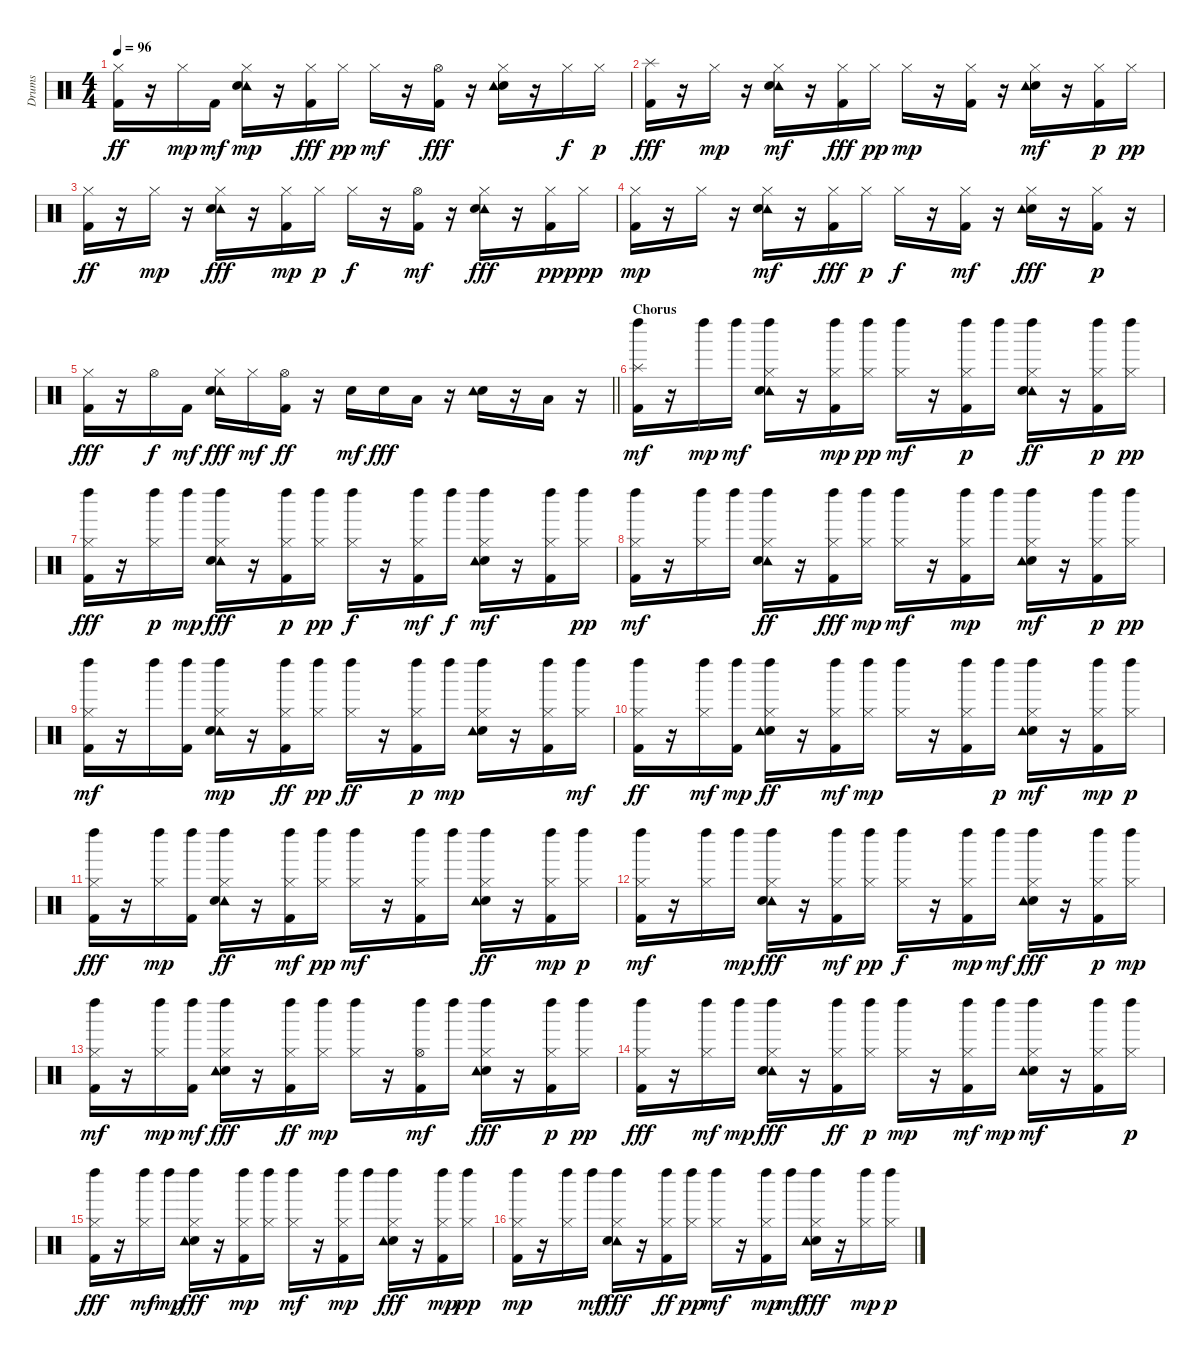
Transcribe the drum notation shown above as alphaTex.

\track ("Drums" "Drums") {instrument percussion}
\staff {score}
\articulation defaults
\ts (4 4)
\tempo 96
\clef neutral
\ks c
("Kick (hit) 2" "Hi-Hat (closed)").16{dy ff} r.16 "Hi-Hat (closed)".16{dy mp} "Kick (hit) 2".16{dy mf} ("Tambourine (hit)" "Electric Snare (hit)" "Hi-Hat (closed)").16{dy mp} r.16 ("Hi-Hat (closed)" "Kick (hit) 2").16{dy fff} "Hi-Hat (closed)".16{dy pp} "Hi-Hat (closed)".16{dy mf} r.16 ("Hi-Hat (open)" "Kick (hit) 2").16{dy fff} r.16 ("Hi-Hat (closed)" "Electric Snare (hit)" "Tambourine (hit)").16 r.16 "Hi-Hat (closed)".16{dy f} "Hi-Hat (closed)".16{dy p} |
("Kick (hit) 2" "Splash (hit)").16{dy fff} r.16 "Hi-Hat (closed)".16{dy mp} r.16 ("Tambourine (hit)" "Electric Snare (hit)" "Hi-Hat (closed)").16{dy mf} r.16 ("Hi-Hat (closed)" "Kick (hit) 2").16{dy fff} "Hi-Hat (closed)".16{dy pp} "Hi-Hat (closed)".16{dy mp} r.16 ("Kick (hit) 2" "Hi-Hat (closed)").16 r.16 ("Electric Snare (hit)" "Tambourine (hit)" "Hi-Hat (closed)").16{dy mf} r.16 ("Hi-Hat (closed)" "Kick (hit) 2").16{dy p} "Hi-Hat (closed)".16{dy pp} |
("Hi-Hat (closed)" "Kick (hit) 2").16{dy ff} r.16 "Hi-Hat (closed)".16{dy mp} r.16 ("Tambourine (hit)" "Electric Snare (hit)" "Hi-Hat (closed)").16{dy fff} r.16 ("Hi-Hat (closed)" "Kick (hit) 2").16{dy mp} "Hi-Hat (closed)".16{dy p} "Hi-Hat (closed)".16{dy f} r.16 ("Kick (hit) 2" "Hi-Hat (open)").16{dy mf} r.16 ("Tambourine (hit)" "Electric Snare (hit)" "Hi-Hat (closed)").16{dy fff} r.16 ("Kick (hit) 2" "Hi-Hat (closed)").16{dy pp} "Hi-Hat (closed)".16{dy ppp} |
("Kick (hit) 2" "Hi-Hat (closed)").16{dy mp} r.16 "Hi-Hat (closed)".16 r.16 ("Tambourine (hit)" "Electric Snare (hit)" "Hi-Hat (closed)").16{dy mf} r.16 ("Hi-Hat (closed)" "Kick (hit) 2").16{dy fff} "Hi-Hat (closed)".16{dy p} "Hi-Hat (closed)".16{dy f} r.16 ("Kick (hit) 2" "Hi-Hat (closed)").16{dy mf} r.16 ("Electric Snare (hit)" "Tambourine (hit)" "Hi-Hat (closed)").16{dy fff} r.16 ("Hi-Hat (closed)" "Kick (hit) 2").16{dy p} r.16 |
\barLineRight lightlight
("Hi-Hat (closed)" "Kick (hit) 2").16{dy fff} r.16 "Hi-Hat (open)".16{dy f} "Kick (hit) 2".16{dy mf} ("Hi-Hat (closed)" "Tambourine (hit)" "Electric Snare (hit)").16{dy fff} "Hi-Hat (closed)".16{dy mf} ("Kick (hit) 2" "Hi-Hat (open)").16{dy ff} r.16 "Electric Snare (hit)".16{dy mf} "Electric Snare (hit)".16{dy fff} "Low Tom (hit)".16 r.16 ("Electric Snare (hit)" "Tambourine (hit)").16 r.16 "Low Tom (hit)".16 r.16 |
\section ("" "Chorus")
("Splash (hit)" "Kick (hit) 2" "Left Maraca (hit)").16{dy mf} r.16 "Left Maraca (hit)".16{dy mp} "Left Maraca (hit)".16{dy mf} ("Left Maraca (hit)" "Tambourine (hit)" "Electric Snare (hit)" "Hi-Hat (closed)").16 r.16 ("Hi-Hat (closed)" "Kick (hit) 2" "Left Maraca (hit)").16{dy mp} ("Left Maraca (hit)" "Hi-Hat (closed)").16{dy pp} ("Left Maraca (hit)" "Hi-Hat (closed)").16{dy mf} r.16 ("Kick (hit) 2" "Hi-Hat (closed)" "Left Maraca (hit)").16{dy p} "Left Maraca (hit)".16 ("Left Maraca (hit)" "Tambourine (hit)" "Electric Snare (hit)" "Hi-Hat (closed)").16{dy ff} r.16 ("Left Maraca (hit)" "Hi-Hat (closed)" "Kick (hit) 2").16{dy p} ("Left Maraca (hit)" "Hi-Hat (closed)").16{dy pp} |
("Left Maraca (hit)" "Hi-Hat (closed)" "Kick (hit) 2").16{dy fff} r.16 ("Hi-Hat (closed)" "Left Maraca (hit)").16{dy p} "Left Maraca (hit)".16{dy mp} ("Left Maraca (hit)" "Tambourine (hit)" "Electric Snare (hit)" "Hi-Hat (closed)").16{dy fff} r.16 ("Kick (hit) 2" "Hi-Hat (closed)" "Left Maraca (hit)").16{dy p} ("Left Maraca (hit)" "Hi-Hat (closed)").16{dy pp} ("Left Maraca (hit)" "Hi-Hat (closed)").16{dy f} r.16 ("Kick (hit) 2" "Hi-Hat (closed)" "Left Maraca (hit)").16{dy mf} "Left Maraca (hit)".16{dy f} ("Electric Snare (hit)" "Tambourine (hit)" "Hi-Hat (closed)" "Left Maraca (hit)").16{dy mf} r.16 ("Kick (hit) 2" "Hi-Hat (closed)" "Left Maraca (hit)").16 ("Left Maraca (hit)" "Hi-Hat (closed)").16{dy pp} |
("Left Maraca (hit)" "Hi-Hat (closed)" "Kick (hit) 2").16{dy mf} r.16 ("Hi-Hat (closed)" "Left Maraca (hit)").16 "Left Maraca (hit)".16 ("Left Maraca (hit)" "Tambourine (hit)" "Electric Snare (hit)" "Hi-Hat (closed)").16{dy ff} r.16 ("Left Maraca (hit)" "Hi-Hat (closed)" "Kick (hit) 2").16{dy fff} ("Left Maraca (hit)" "Hi-Hat (closed)").16{dy mp} ("Left Maraca (hit)" "Hi-Hat (closed)").16{dy mf} r.16 ("Left Maraca (hit)" "Kick (hit) 2" "Hi-Hat (closed)").16{dy mp} "Left Maraca (hit)".16 ("Electric Snare (hit)" "Tambourine (hit)" "Hi-Hat (closed)" "Left Maraca (hit)").16{dy mf} r.16 ("Left Maraca (hit)" "Hi-Hat (closed)" "Kick (hit) 2").16{dy p} ("Left Maraca (hit)" "Hi-Hat (closed)").16{dy pp} |
("Kick (hit) 2" "Hi-Hat (closed)" "Left Maraca (hit)").16{dy mf} r.16 "Left Maraca (hit)".16 ("Left Maraca (hit)" "Kick (hit) 2").16 ("Left Maraca (hit)" "Tambourine (hit)" "Electric Snare (hit)" "Hi-Hat (closed)").16{dy mp} r.16 ("Left Maraca (hit)" "Hi-Hat (closed)" "Kick (hit) 2").16{dy ff} ("Left Maraca (hit)" "Hi-Hat (closed)").16{dy pp} ("Left Maraca (hit)" "Hi-Hat (closed)").16{dy ff} r.16 ("Kick (hit) 2" "Hi-Hat (closed)" "Left Maraca (hit)").16{dy p} "Left Maraca (hit)".16{dy mp} ("Electric Snare (hit)" "Tambourine (hit)" "Hi-Hat (closed)" "Left Maraca (hit)").16 r.16 ("Kick (hit) 2" "Hi-Hat (closed)" "Left Maraca (hit)").16 ("Hi-Hat (closed)" "Left Maraca (hit)").16{dy mf} |
("Kick (hit) 2" "Hi-Hat (closed)" "Left Maraca (hit)").16{dy ff} r.16 ("Left Maraca (hit)" "Hi-Hat (closed)").16{dy mf} ("Left Maraca (hit)" "Kick (hit) 2").16{dy mp} ("Left Maraca (hit)" "Electric Snare (hit)" "Tambourine (hit)" "Hi-Hat (closed)").16{dy ff} r.16 ("Left Maraca (hit)" "Kick (hit) 2" "Hi-Hat (closed)").16{dy mf} ("Left Maraca (hit)" "Hi-Hat (closed)").16{dy mp} ("Left Maraca (hit)" "Hi-Hat (closed)").16 r.16 ("Kick (hit) 2" "Hi-Hat (closed)" "Left Maraca (hit)").16 "Left Maraca (hit)".16{dy p} ("Hi-Hat (closed)" "Electric Snare (hit)" "Tambourine (hit)" "Left Maraca (hit)").16{dy mf} r.16 ("Left Maraca (hit)" "Kick (hit) 2" "Hi-Hat (closed)").16{dy mp} ("Left Maraca (hit)" "Hi-Hat (closed)").16{dy p} |
("Left Maraca (hit)" "Hi-Hat (closed)" "Kick (hit) 2").16{dy fff} r.16 ("Left Maraca (hit)" "Hi-Hat (closed)").16{dy mp} ("Left Maraca (hit)" "Kick (hit) 2").16 ("Left Maraca (hit)" "Tambourine (hit)" "Electric Snare (hit)" "Hi-Hat (closed)").16{dy ff} r.16 ("Left Maraca (hit)" "Kick (hit) 2" "Hi-Hat (closed)").16{dy mf} ("Left Maraca (hit)" "Hi-Hat (closed)").16{dy pp} ("Left Maraca (hit)" "Hi-Hat (closed)").16{dy mf} r.16 ("Kick (hit) 2" "Hi-Hat (closed)" "Left Maraca (hit)").16 "Left Maraca (hit)".16 ("Electric Snare (hit)" "Tambourine (hit)" "Hi-Hat (closed)" "Left Maraca (hit)").16{dy ff} r.16 ("Left Maraca (hit)" "Kick (hit) 2" "Hi-Hat (closed)").16{dy mp} ("Left Maraca (hit)" "Hi-Hat (closed)").16{dy p} |
("Kick (hit) 2" "Hi-Hat (closed)" "Left Maraca (hit)").16{dy mf} r.16 ("Hi-Hat (closed)" "Left Maraca (hit)").16 "Left Maraca (hit)".16{dy mp} ("Tambourine (hit)" "Electric Snare (hit)" "Hi-Hat (closed)" "Left Maraca (hit)").16{dy fff} r.16 ("Left Maraca (hit)" "Kick (hit) 2" "Hi-Hat (closed)").16{dy mf} ("Left Maraca (hit)" "Hi-Hat (closed)").16{dy pp} ("Hi-Hat (closed)" "Left Maraca (hit)").16{dy f} r.16 ("Kick (hit) 2" "Hi-Hat (closed)" "Left Maraca (hit)").16{dy mp} "Left Maraca (hit)".16{dy mf} ("Left Maraca (hit)" "Hi-Hat (closed)" "Electric Snare (hit)" "Tambourine (hit)").16{dy fff} r.16 ("Left Maraca (hit)" "Hi-Hat (closed)" "Kick (hit) 2").16{dy p} ("Left Maraca (hit)" "Hi-Hat (closed)").16{dy mp} |
("Left Maraca (hit)" "Kick (hit) 2" "Hi-Hat (closed)").16{dy mf} r.16 ("Hi-Hat (closed)" "Left Maraca (hit)").16{dy mp} ("Kick (hit) 2" "Left Maraca (hit)").16{dy mf} ("Left Maraca (hit)" "Hi-Hat (closed)" "Electric Snare (hit)" "Tambourine (hit)").16{dy fff} r.16 ("Left Maraca (hit)" "Hi-Hat (closed)" "Kick (hit) 2").16{dy ff} ("Left Maraca (hit)" "Hi-Hat (closed)").16{dy mp} ("Left Maraca (hit)" "Hi-Hat (closed)").16 r.16 ("Kick (hit) 2" "Hi-Hat (open)" "Left Maraca (hit)").16{dy mf} "Left Maraca (hit)".16 ("Electric Snare (hit)" "Tambourine (hit)" "Hi-Hat (closed)" "Left Maraca (hit)").16{dy fff} r.16 ("Left Maraca (hit)" "Hi-Hat (closed)" "Kick (hit) 2").16{dy p} ("Left Maraca (hit)" "Hi-Hat (closed)").16{dy pp} |
("Left Maraca (hit)" "Hi-Hat (closed)" "Kick (hit) 2").16{dy fff} r.16 ("Left Maraca (hit)" "Hi-Hat (closed)").16{dy mf} "Left Maraca (hit)".16{dy mp} ("Left Maraca (hit)" "Hi-Hat (closed)" "Tambourine (hit)" "Electric Snare (hit)").16{dy fff} r.16 ("Left Maraca (hit)" "Hi-Hat (closed)" "Kick (hit) 2").16{dy ff} ("Left Maraca (hit)" "Hi-Hat (closed)").16{dy p} ("Left Maraca (hit)" "Hi-Hat (closed)").16{dy mp} r.16 ("Kick (hit) 2" "Hi-Hat (closed)" "Left Maraca (hit)").16{dy mf} "Left Maraca (hit)".16{dy mp} ("Electric Snare (hit)" "Tambourine (hit)" "Hi-Hat (closed)" "Left Maraca (hit)").16{dy mf} r.16 ("Left Maraca (hit)" "Kick (hit) 2" "Hi-Hat (closed)").16 ("Left Maraca (hit)" "Hi-Hat (closed)").16{dy p} |
("Left Maraca (hit)" "Hi-Hat (closed)" "Kick (hit) 2").16{dy fff} r.16 ("Left Maraca (hit)" "Hi-Hat (closed)").16{dy mf} "Left Maraca (hit)".16{dy mp} ("Left Maraca (hit)" "Hi-Hat (closed)" "Electric Snare (hit)" "Tambourine (hit)").16{dy fff} r.16 ("Hi-Hat (closed)" "Kick (hit) 2" "Left Maraca (hit)").16{dy mp} ("Hi-Hat (closed)" "Left Maraca (hit)").16 ("Hi-Hat (closed)" "Left Maraca (hit)").16{dy mf} r.16 ("Left Maraca (hit)" "Kick (hit) 2" "Hi-Hat (closed)").16{dy mp} "Left Maraca (hit)".16 ("Left Maraca (hit)" "Electric Snare (hit)" "Tambourine (hit)" "Hi-Hat (closed)").16{dy fff} r.16 ("Left Maraca (hit)" "Hi-Hat (closed)" "Kick (hit) 2").16{dy mp} ("Left Maraca (hit)" "Hi-Hat (closed)").16{dy pp} |
("Left Maraca (hit)" "Hi-Hat (closed)" "Kick (hit) 2").16{dy mp} r.16 ("Left Maraca (hit)" "Hi-Hat (closed)").16 "Left Maraca (hit)".16{dy mf} ("Left Maraca (hit)" "Hi-Hat (closed)" "Tambourine (hit)" "Electric Snare (hit)").16{dy fff} r.16 ("Left Maraca (hit)" "Hi-Hat (closed)" "Kick (hit) 2").16{dy ff} ("Left Maraca (hit)" "Hi-Hat (closed)").16{dy pp} ("Left Maraca (hit)" "Hi-Hat (closed)").16{dy mf} r.16 ("Left Maraca (hit)" "Kick (hit) 2" "Hi-Hat (closed)").16{dy mp} "Left Maraca (hit)".16{dy mf} ("Left Maraca (hit)" "Hi-Hat (closed)" "Electric Snare (hit)" "Tambourine (hit)").16{dy fff} r.16 ("Left Maraca (hit)" "Hi-Hat (closed)").16{dy mp} ("Left Maraca (hit)" "Hi-Hat (closed)").16{dy p}
